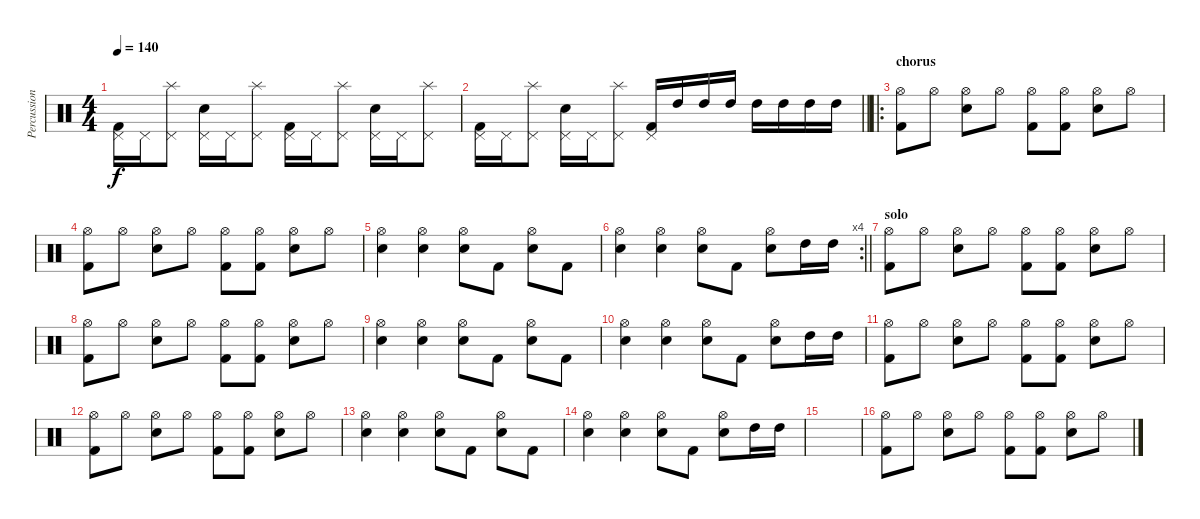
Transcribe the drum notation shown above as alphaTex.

\track ("Percussion" "Percussion") {instrument percussion}
\staff {score}
\articulation defaults
\ts (4 4)
\tempo 140
\clef neutral
\ks c
("Kick (hit) 2" "Pedal Hi-Hat (hit)").16{dy f} "Pedal Hi-Hat (hit)".16 ("Pedal Hi-Hat (hit)" "Splash (hit)").8 ("Snare (hit) 2" "Pedal Hi-Hat (hit)").16 "Pedal Hi-Hat (hit)".16 ("Pedal Hi-Hat (hit)" "Splash (hit)").8 ("Kick (hit) 2" "Pedal Hi-Hat (hit)").16 "Pedal Hi-Hat (hit)".16 ("Pedal Hi-Hat (hit)" "Splash (hit)").8 ("Snare (hit) 2" "Pedal Hi-Hat (hit)").16 "Pedal Hi-Hat (hit)".16 ("Pedal Hi-Hat (hit)" "Splash (hit)").8 |
\barLineRight lightlight
("Kick (hit) 2" "Pedal Hi-Hat (hit)").16 "Pedal Hi-Hat (hit)".16 ("Pedal Hi-Hat (hit)" "Splash (hit)").8 ("Snare (hit) 2" "Pedal Hi-Hat (hit)").16 "Pedal Hi-Hat (hit)".16 ("Pedal Hi-Hat (hit)" "Splash (hit)").8 ("Kick (hit) 2" "Pedal Hi-Hat (hit)").16 "High Tom (hit)".16 "High Tom (hit)".16 "High Tom (hit)".16 "High Tom (hit)".16 "High Tom (hit)".16 "High Tom (hit)".16 "High Tom (hit)".16 |
\ro
\section ("" "chorus")
("Kick (hit) 2" "Hi-Hat (open)").8 "Hi-Hat (open)".8 ("Snare (hit) 2" "Hi-Hat (open)").8 "Hi-Hat (open)".8 ("Kick (hit) 2" "Hi-Hat (open)").8 ("Kick (hit) 2" "Hi-Hat (open)").8 ("Snare (hit) 2" "Hi-Hat (open)").8 "Hi-Hat (open)".8 |
("Kick (hit) 2" "Hi-Hat (open)").8 "Hi-Hat (open)".8 ("Snare (hit) 2" "Hi-Hat (open)").8 "Hi-Hat (open)".8 ("Kick (hit) 2" "Hi-Hat (open)").8 ("Kick (hit) 2" "Hi-Hat (open)").8 ("Snare (hit) 2" "Hi-Hat (open)").8 "Hi-Hat (open)".8 |
("Snare (hit) 2" "Hi-Hat (open)").4 ("Snare (hit) 2" "Hi-Hat (open)").4 ("Snare (hit) 2" "Hi-Hat (open)").8 "Kick (hit) 2".8 ("Snare (hit) 2" "Hi-Hat (open)").8 "Kick (hit) 2".8 |
\rc 4
\barLineRight lightlight
("Snare (hit) 2" "Hi-Hat (open)").4 ("Snare (hit) 2" "Hi-Hat (open)").4 ("Snare (hit) 2" "Hi-Hat (open)").8 "Kick (hit) 2".8 ("Snare (hit) 2" "Hi-Hat (open)").8 "High Tom (hit)".16 "High Tom (hit)".16 |
\section ("" "solo")
("Kick (hit) 2" "Hi-Hat (open)").8 "Hi-Hat (open)".8 ("Snare (hit) 2" "Hi-Hat (open)").8 "Hi-Hat (open)".8 ("Kick (hit) 2" "Hi-Hat (open)").8 ("Kick (hit) 2" "Hi-Hat (open)").8 ("Snare (hit) 2" "Hi-Hat (open)").8 "Hi-Hat (open)".8 |
("Kick (hit) 2" "Hi-Hat (open)").8 "Hi-Hat (open)".8 ("Snare (hit) 2" "Hi-Hat (open)").8 "Hi-Hat (open)".8 ("Kick (hit) 2" "Hi-Hat (open)").8 ("Kick (hit) 2" "Hi-Hat (open)").8 ("Snare (hit) 2" "Hi-Hat (open)").8 "Hi-Hat (open)".8 |
("Snare (hit) 2" "Hi-Hat (open)").4 ("Snare (hit) 2" "Hi-Hat (open)").4 ("Snare (hit) 2" "Hi-Hat (open)").8 "Kick (hit) 2".8 ("Snare (hit) 2" "Hi-Hat (open)").8 "Kick (hit) 2".8 |
("Snare (hit) 2" "Hi-Hat (open)").4 ("Snare (hit) 2" "Hi-Hat (open)").4 ("Snare (hit) 2" "Hi-Hat (open)").8 "Kick (hit) 2".8 ("Snare (hit) 2" "Hi-Hat (open)").8 "High Tom (hit)".16 "High Tom (hit)".16 |
("Kick (hit) 2" "Hi-Hat (open)").8 "Hi-Hat (open)".8 ("Snare (hit) 2" "Hi-Hat (open)").8 "Hi-Hat (open)".8 ("Kick (hit) 2" "Hi-Hat (open)").8 ("Kick (hit) 2" "Hi-Hat (open)").8 ("Snare (hit) 2" "Hi-Hat (open)").8 "Hi-Hat (open)".8 |
("Kick (hit) 2" "Hi-Hat (open)").8 "Hi-Hat (open)".8 ("Snare (hit) 2" "Hi-Hat (open)").8 "Hi-Hat (open)".8 ("Kick (hit) 2" "Hi-Hat (open)").8 ("Kick (hit) 2" "Hi-Hat (open)").8 ("Snare (hit) 2" "Hi-Hat (open)").8 "Hi-Hat (open)".8 |
("Snare (hit) 2" "Hi-Hat (open)").4 ("Snare (hit) 2" "Hi-Hat (open)").4 ("Snare (hit) 2" "Hi-Hat (open)").8 "Kick (hit) 2".8 ("Snare (hit) 2" "Hi-Hat (open)").8 "Kick (hit) 2".8 |
("Snare (hit) 2" "Hi-Hat (open)").4 ("Snare (hit) 2" "Hi-Hat (open)").4 ("Snare (hit) 2" "Hi-Hat (open)").8 "Kick (hit) 2".8 ("Snare (hit) 2" "Hi-Hat (open)").8 "High Tom (hit)".16 "High Tom (hit)".16 |
|
("Kick (hit) 2" "Hi-Hat (open)").8 "Hi-Hat (open)".8 ("Snare (hit) 2" "Hi-Hat (open)").8 "Hi-Hat (open)".8 ("Kick (hit) 2" "Hi-Hat (open)").8 ("Kick (hit) 2" "Hi-Hat (open)").8 ("Snare (hit) 2" "Hi-Hat (open)").8 "Hi-Hat (open)".8
